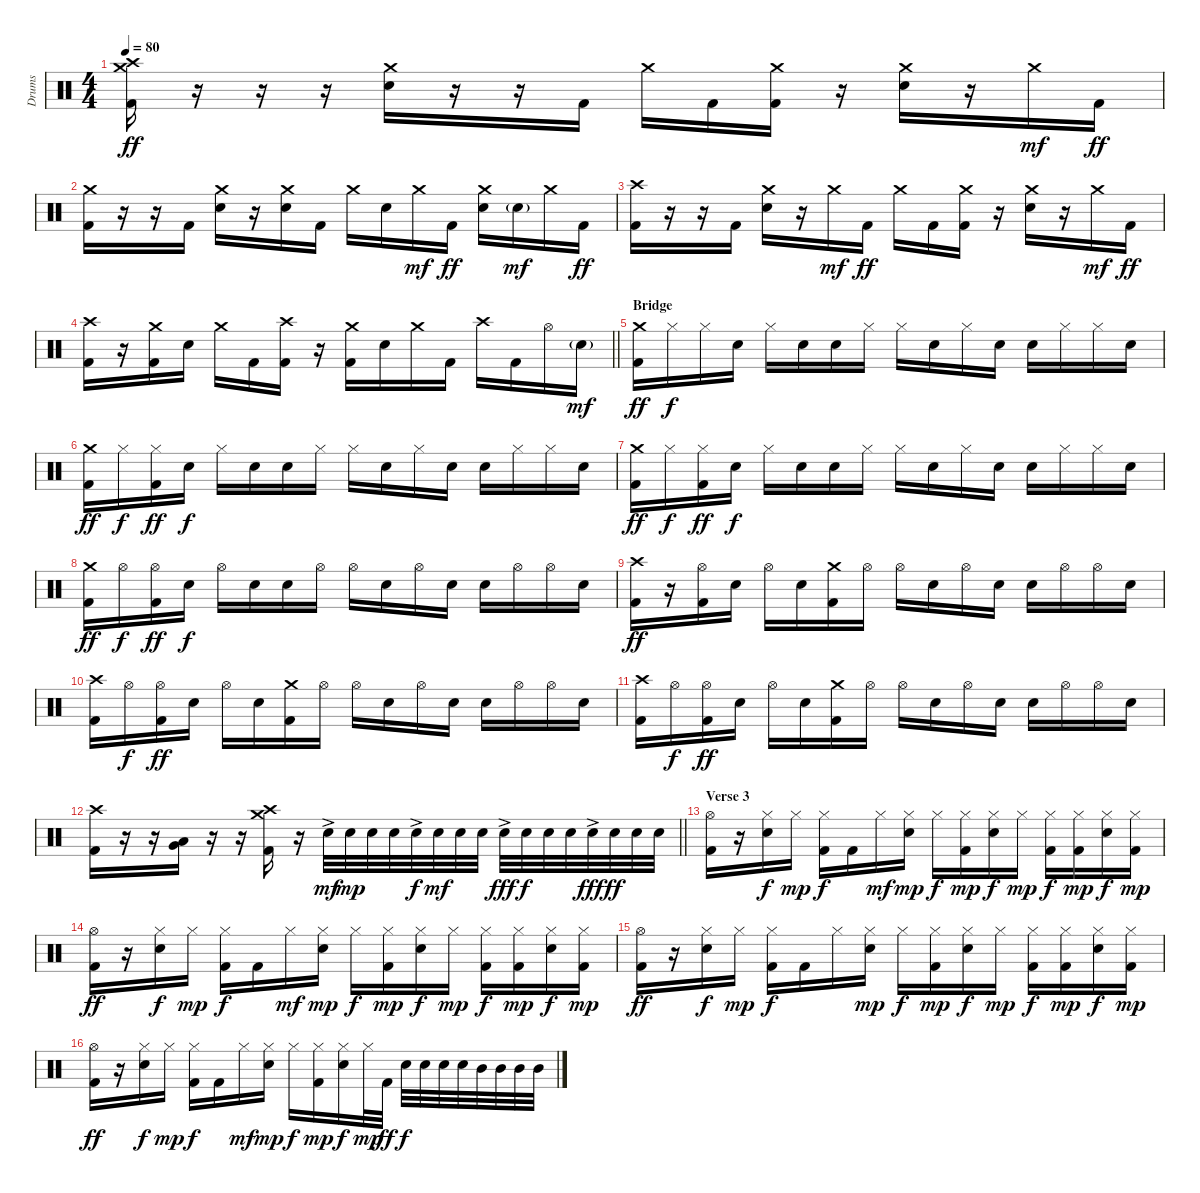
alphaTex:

\track ("Drums" "Drums") {instrument percussion}
\staff {score}
\articulation defaults
\ts (4 4)
\tempo 80
\clef neutral
\ks c
("Crash medium (hit)" "Crash high (hit)" "Kick (hit) 2").16{dy ff} r.16 r.16 r.16 ("Crash medium (hit)" "Electric Snare (hit)").16 r.16 r.16 "Kick (hit) 2".16 "Crash medium (hit)".16 "Kick (hit) 2".16 ("Crash medium (hit)" "Kick (hit) 2").16 r.16 ("Crash medium (hit)" "Electric Snare (hit)").16 r.16 "Crash medium (hit)".16{dy mf} "Kick (hit) 2".16{dy ff} |
("Crash medium (hit)" "Kick (hit) 2").16 r.16 r.16 "Kick (hit) 2".16 ("Crash medium (hit)" "Electric Snare (hit)").16 r.16 ("Crash medium (hit)" "Electric Snare (hit)").16 "Kick (hit) 2".16 "Crash medium (hit)".16 "Electric Snare (hit)".16 "Crash medium (hit)".16{dy mf} "Kick (hit) 2".16{dy ff} ("Crash medium (hit)" "Electric Snare (hit)").16 "Electric Snare (hit)"{g}.16{dy mf} "Crash medium (hit)".16 "Kick (hit) 2".16{dy ff} |
("Crash high (hit)" "Kick (hit) 2").16 r.16 r.16 "Kick (hit) 2".16 ("Crash medium (hit)" "Electric Snare (hit)").16 r.16 "Crash medium (hit)".16{dy mf} "Kick (hit) 2".16{dy ff} "Crash medium (hit)".16 "Kick (hit) 2".16 ("Crash medium (hit)" "Kick (hit) 2").16 r.16 ("Crash medium (hit)" "Electric Snare (hit)").16 r.16 "Crash medium (hit)".16{dy mf} "Kick (hit) 2".16{dy ff} |
\barLineRight lightlight
("Crash high (hit)" "Kick (hit) 2").16 r.16 ("Crash medium (hit)" "Kick (hit) 2").16 "Electric Snare (hit)".16 "Crash medium (hit)".16 "Kick (hit) 2".16 ("Crash high (hit)" "Kick (hit) 2").16 r.16 ("Crash medium (hit)" "Kick (hit) 2").16 "Electric Snare (hit)".16 "Crash medium (hit)".16 "Kick (hit) 2".16 "Crash high (hit)".16 "Kick (hit) 2".16 "Hi-Hat (open)".16 "Electric Snare (hit)"{g}.16{dy mf} |
\section ("" "Bridge")
("Crash medium (hit)" "Kick (hit) 2").16{dy ff} "Hi-Hat (closed)".16{dy f} "Hi-Hat (closed)".16 "Snare (hit) 2".16 "Hi-Hat (closed)".16 "Snare (hit) 2".16 "Snare (hit) 2".16 "Hi-Hat (closed)".16 "Hi-Hat (closed)".16 "Snare (hit) 2".16 "Hi-Hat (closed)".16 "Snare (hit) 2".16 "Snare (hit) 2".16 "Hi-Hat (closed)".16 "Hi-Hat (closed)".16 "Snare (hit) 2".16 |
("Crash medium (hit)" "Kick (hit) 2").16{dy ff} "Hi-Hat (closed)".16{dy f} ("Hi-Hat (closed)" "Kick (hit) 2").16{dy ff} "Snare (hit) 2".16{dy f} "Hi-Hat (closed)".16 "Snare (hit) 2".16 "Snare (hit) 2".16 "Hi-Hat (closed)".16 "Hi-Hat (closed)".16 "Snare (hit) 2".16 "Hi-Hat (closed)".16 "Snare (hit) 2".16 "Snare (hit) 2".16 "Hi-Hat (closed)".16 "Hi-Hat (closed)".16 "Snare (hit) 2".16 |
("Crash medium (hit)" "Kick (hit) 2").16{dy ff} "Hi-Hat (closed)".16{dy f} ("Hi-Hat (closed)" "Kick (hit) 2").16{dy ff} "Snare (hit) 2".16{dy f} "Hi-Hat (closed)".16 "Snare (hit) 2".16 "Snare (hit) 2".16 "Hi-Hat (closed)".16 "Hi-Hat (closed)".16 "Snare (hit) 2".16 "Hi-Hat (closed)".16 "Snare (hit) 2".16 "Snare (hit) 2".16 "Hi-Hat (closed)".16 "Hi-Hat (closed)".16 "Snare (hit) 2".16 |
("Crash medium (hit)" "Kick (hit) 2").16{dy ff} "Hi-Hat (open)".16{dy f} ("Hi-Hat (open)" "Kick (hit) 2").16{dy ff} "Snare (hit) 2".16{dy f} "Hi-Hat (open)".16 "Snare (hit) 2".16 "Snare (hit) 2".16 "Hi-Hat (open)".16 "Hi-Hat (open)".16 "Snare (hit) 2".16 "Hi-Hat (open)".16 "Snare (hit) 2".16 "Snare (hit) 2".16 "Hi-Hat (open)".16 "Hi-Hat (open)".16 "Snare (hit) 2".16 |
("Crash high (hit)" "Kick (hit) 2").16{dy ff} r.16 ("Hi-Hat (open)" "Kick (hit) 2").16 "Electric Snare (hit)".16 "Hi-Hat (open)".16 "Electric Snare (hit)".16 ("Crash medium (hit)" "Kick (hit) 2").16 "Hi-Hat (open)".16 "Hi-Hat (open)".16 "Electric Snare (hit)".16 "Hi-Hat (open)".16 "Electric Snare (hit)".16 "Electric Snare (hit)".16 "Hi-Hat (open)".16 "Hi-Hat (open)".16 "Electric Snare (hit)".16 |
("Crash high (hit)" "Kick (hit) 2").16 "Hi-Hat (open)".16{dy f} ("Hi-Hat (open)" "Kick (hit) 2").16{dy ff} "Electric Snare (hit)".16 "Hi-Hat (open)".16 "Electric Snare (hit)".16 ("Crash medium (hit)" "Kick (hit) 2").16 "Hi-Hat (open)".16 "Hi-Hat (open)".16 "Electric Snare (hit)".16 "Hi-Hat (open)".16 "Electric Snare (hit)".16 "Electric Snare (hit)".16 "Hi-Hat (open)".16 "Hi-Hat (open)".16 "Electric Snare (hit)".16 |
("Crash high (hit)" "Kick (hit) 2").16 "Hi-Hat (open)".16{dy f} ("Hi-Hat (open)" "Kick (hit) 2").16{dy ff} "Electric Snare (hit)".16 "Hi-Hat (open)".16 "Electric Snare (hit)".16 ("Crash medium (hit)" "Kick (hit) 2").16 "Hi-Hat (open)".16 "Hi-Hat (open)".16 "Electric Snare (hit)".16 "Hi-Hat (open)".16 "Electric Snare (hit)".16 "Electric Snare (hit)".16 "Hi-Hat (open)".16 "Hi-Hat (open)".16 "Electric Snare (hit)".16 |
\barLineRight lightlight
("Crash high (hit)" "Kick (hit) 2").16 r.16 r.16 ("Very Low Tom (hit)" "Low Floor Tom (hit)").16 r.16 r.16 ("Crash medium (hit)" "Crash high (hit)" "Kick (hit) 2").16 r.16 "Electric Snare (hit)"{ac}.32{dy mf} "Electric Snare (hit)".32{dy mp} "Electric Snare (hit)".32 "Electric Snare (hit)".32 "Electric Snare (hit)"{ac}.32{dy f} "Electric Snare (hit)".32{dy mf} "Electric Snare (hit)".32 "Electric Snare (hit)".32 "Electric Snare (hit)"{ac}.32{dy fff} "Electric Snare (hit)".32{dy f} "Electric Snare (hit)".32 "Electric Snare (hit)".32 "Electric Snare (hit)"{ac}.32{dy fff} "Electric Snare (hit)".32{dy ff} "Electric Snare (hit)".32 "Electric Snare (hit)".32 |
\section ("" "Verse 3")
("Hi-Hat (open)" "Kick (hit) 2").16 r.16 ("Hi-Hat (closed)" "Electric Snare (hit)").16{dy f} "Hi-Hat (closed)".16{dy mp} ("Hi-Hat (closed)" "Kick (hit) 2").16{dy f} "Kick (hit) 2".16 "Hi-Hat (closed)".16{dy mf} ("Hi-Hat (closed)" "Electric Snare (hit)").16{dy mp} "Hi-Hat (closed)".16{dy f} ("Hi-Hat (closed)" "Kick (hit) 2").16{dy mp} ("Hi-Hat (closed)" "Electric Snare (hit)").16{dy f} "Hi-Hat (closed)".16{dy mp} ("Hi-Hat (closed)" "Kick (hit) 2").16{dy f} ("Hi-Hat (closed)" "Kick (hit) 2").16{dy mp} ("Hi-Hat (closed)" "Electric Snare (hit)").16{dy f} ("Hi-Hat (closed)" "Kick (hit) 2").16{dy mp} |
("Hi-Hat (open)" "Kick (hit) 2").16{dy ff} r.16 ("Hi-Hat (closed)" "Electric Snare (hit)").16{dy f} "Hi-Hat (closed)".16{dy mp} ("Hi-Hat (closed)" "Kick (hit) 2").16{dy f} "Kick (hit) 2".16 "Hi-Hat (closed)".16{dy mf} ("Hi-Hat (closed)" "Electric Snare (hit)").16{dy mp} "Hi-Hat (closed)".16{dy f} ("Hi-Hat (closed)" "Kick (hit) 2").16{dy mp} ("Hi-Hat (closed)" "Electric Snare (hit)").16{dy f} "Hi-Hat (closed)".16{dy mp} ("Hi-Hat (closed)" "Kick (hit) 2").16{dy f} ("Hi-Hat (closed)" "Kick (hit) 2").16{dy mp} ("Hi-Hat (closed)" "Electric Snare (hit)").16{dy f} ("Hi-Hat (closed)" "Kick (hit) 2").16{dy mp} |
("Hi-Hat (open)" "Kick (hit) 2").16{dy ff} r.16 ("Hi-Hat (closed)" "Electric Snare (hit)").16{dy f} "Hi-Hat (closed)".16{dy mp} ("Hi-Hat (closed)" "Kick (hit) 2").16{dy f} "Kick (hit) 2".16 "Hi-Hat (closed)".16 ("Hi-Hat (closed)" "Electric Snare (hit)").16{dy mp} "Hi-Hat (closed)".16{dy f} ("Hi-Hat (closed)" "Kick (hit) 2").16{dy mp} ("Hi-Hat (closed)" "Electric Snare (hit)").16{dy f} "Hi-Hat (closed)".16{dy mp} ("Hi-Hat (closed)" "Kick (hit) 2").16{dy f} ("Hi-Hat (closed)" "Kick (hit) 2").16{dy mp} ("Hi-Hat (closed)" "Electric Snare (hit)").16{dy f} ("Hi-Hat (closed)" "Kick (hit) 2").16{dy mp} |
("Hi-Hat (open)" "Kick (hit) 2").16{dy ff} r.16 ("Hi-Hat (closed)" "Electric Snare (hit)").16{dy f} "Hi-Hat (closed)".16{dy mp} ("Hi-Hat (closed)" "Kick (hit) 2").16{dy f} "Kick (hit) 2".16 "Hi-Hat (closed)".16{dy mf} ("Hi-Hat (closed)" "Electric Snare (hit)").16{dy mp} "Hi-Hat (closed)".16{dy f} ("Hi-Hat (closed)" "Kick (hit) 2").16{dy mp} ("Hi-Hat (closed)" "Electric Snare (hit)").16{dy f} "Hi-Hat (closed)".32{dy mp} "Kick (hit) 2".32{dy ff} "Electric Snare (hit)".32{dy f} "Electric Snare (hit)".32 "Electric Snare (hit)".32 "Electric Snare (hit)".32 "Mid Tom (hit)".32 "Mid Tom (hit)".32 "Mid Tom (hit)".32 "Mid Tom (hit)".32
